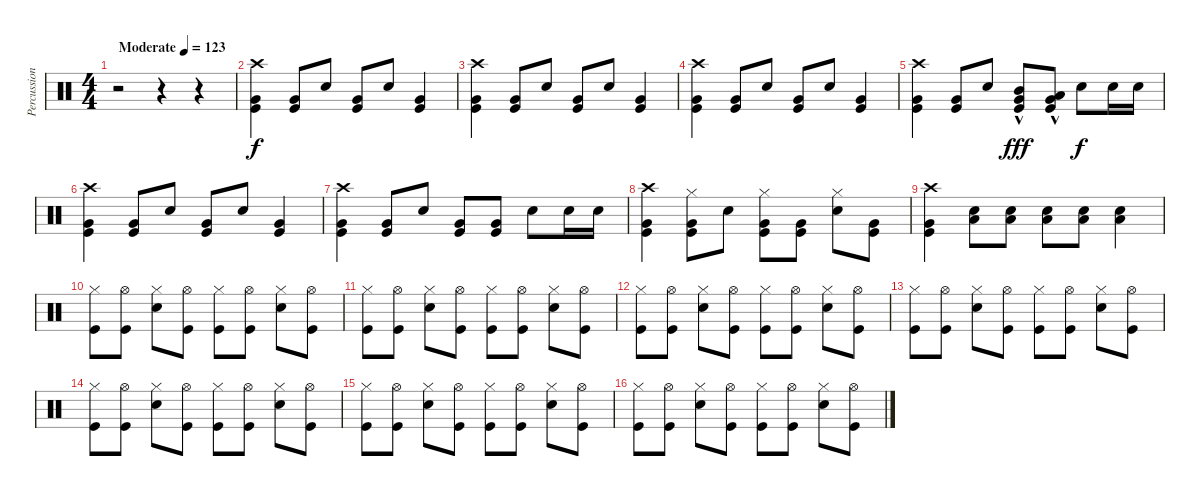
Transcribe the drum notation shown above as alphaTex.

\track ("Percussion" "Percussion") {instrument percussion}
\staff {score}
\articulation defaults
\ts (4 4)
\tempo (123 "Moderate")
\clef neutral
\ks c
r.2{dy f volume 0} r.4{volume 13} r.4 |
("Crash high (hit)" "Very Low Tom (hit)" "Kick (hit)").4 ("Very Low Tom (hit)" "Kick (hit)").8 "Snare (hit) 2".8 ("Very Low Tom (hit)" "Kick (hit)").8 "Snare (hit) 2".8 ("Very Low Tom (hit)" "Kick (hit)").4 |
("Crash high (hit)" "Very Low Tom (hit)" "Kick (hit)").4 ("Very Low Tom (hit)" "Kick (hit)").8 "Snare (hit) 2".8 ("Very Low Tom (hit)" "Kick (hit)").8 "Snare (hit) 2".8 ("Very Low Tom (hit)" "Kick (hit)").4 |
("Crash high (hit)" "Very Low Tom (hit)" "Kick (hit)").4 ("Very Low Tom (hit)" "Kick (hit)").8 "Snare (hit) 2".8 ("Very Low Tom (hit)" "Kick (hit)").8 "Snare (hit) 2".8 ("Very Low Tom (hit)" "Kick (hit)").4 |
("Crash high (hit)" "Very Low Tom (hit)" "Kick (hit)").4 ("Very Low Tom (hit)" "Kick (hit)").8 "Snare (hit) 2".8 ("Mid Tom (hit)" "Very Low Tom (hit)"{hac} "Kick (hit)").8{dy fff} ("Low Tom (hit)" "Very Low Tom (hit)"{hac} "Kick (hit)").8 "Snare (hit) 2".8{dy f} "Snare (hit) 2".16 "Snare (hit) 2".16 |
("Crash high (hit)" "Very Low Tom (hit)" "Kick (hit)").4 ("Very Low Tom (hit)" "Kick (hit)").8 "Snare (hit) 2".8 ("Very Low Tom (hit)" "Kick (hit)").8 "Snare (hit) 2".8 ("Very Low Tom (hit)" "Kick (hit)").4 |
("Crash high (hit)" "Very Low Tom (hit)" "Kick (hit)").4 ("Very Low Tom (hit)" "Kick (hit)").8 "Snare (hit) 2".8 ("Very Low Tom (hit)" "Kick (hit)").8 ("Very Low Tom (hit)" "Kick (hit)").8 "Snare (hit) 2".8 "Snare (hit) 2".16 "Snare (hit) 2".16 |
("Crash high (hit)" "Very Low Tom (hit)" "Kick (hit)").4 ("Hi-Hat (closed)" "Very Low Tom (hit)" "Kick (hit)").8 "Snare (hit) 2".8 ("Hi-Hat (closed)" "Very Low Tom (hit)" "Kick (hit)").8 ("Very Low Tom (hit)" "Kick (hit)").8 ("Hi-Hat (closed)" "Snare (hit) 2").8 ("Very Low Tom (hit)" "Kick (hit)").8 |
("Crash high (hit)" "Very Low Tom (hit)" "Kick (hit)").4 ("Snare (hit) 2" "Low Tom (hit)").8 ("Snare (hit) 2" "Low Tom (hit)").8 ("Snare (hit) 2" "Low Tom (hit)").8 ("Snare (hit) 2" "Low Tom (hit)").8 ("Snare (hit) 2" "Low Tom (hit)").4 |
("Hi-Hat (closed)" "Kick (hit)").8 ("Hi-Hat (open)" "Kick (hit)").8 ("Hi-Hat (closed)" "Snare (hit) 2").8 ("Hi-Hat (open)" "Kick (hit)").8 ("Hi-Hat (closed)" "Kick (hit)").8 ("Hi-Hat (open)" "Kick (hit)").8 ("Hi-Hat (closed)" "Snare (hit) 2").8 ("Hi-Hat (open)" "Kick (hit)").8 |
("Hi-Hat (closed)" "Kick (hit)").8 ("Hi-Hat (open)" "Kick (hit)").8 ("Hi-Hat (closed)" "Snare (hit) 2").8 ("Hi-Hat (open)" "Kick (hit)").8 ("Hi-Hat (closed)" "Kick (hit)").8 ("Hi-Hat (open)" "Kick (hit)").8 ("Hi-Hat (closed)" "Snare (hit) 2").8 ("Hi-Hat (open)" "Kick (hit)").8 |
("Hi-Hat (closed)" "Kick (hit)").8{beam Down} ("Hi-Hat (open)" "Kick (hit)").8{beam Down} ("Hi-Hat (closed)" "Snare (hit) 2").8{beam Down} ("Hi-Hat (open)" "Kick (hit)").8{beam Down} ("Hi-Hat (closed)" "Kick (hit)").8{beam Down} ("Hi-Hat (open)" "Kick (hit)").8{beam Down} ("Hi-Hat (closed)" "Snare (hit) 2").8{beam Down} ("Hi-Hat (open)" "Kick (hit)").8{beam Down} |
("Hi-Hat (closed)" "Kick (hit)").8 ("Hi-Hat (open)" "Kick (hit)").8 ("Hi-Hat (closed)" "Snare (hit) 2").8 ("Hi-Hat (open)" "Kick (hit)").8 ("Hi-Hat (closed)" "Kick (hit)").8 ("Hi-Hat (open)" "Kick (hit)").8 ("Hi-Hat (closed)" "Snare (hit) 2").8 ("Hi-Hat (open)" "Kick (hit)").8 |
("Hi-Hat (closed)" "Kick (hit)").8 ("Hi-Hat (open)" "Kick (hit)").8 ("Hi-Hat (closed)" "Snare (hit) 2").8 ("Hi-Hat (open)" "Kick (hit)").8 ("Hi-Hat (closed)" "Kick (hit)").8 ("Hi-Hat (open)" "Kick (hit)").8 ("Hi-Hat (closed)" "Snare (hit) 2").8 ("Hi-Hat (open)" "Kick (hit)").8 |
("Hi-Hat (closed)" "Kick (hit)").8 ("Hi-Hat (open)" "Kick (hit)").8 ("Hi-Hat (closed)" "Snare (hit) 2").8 ("Hi-Hat (open)" "Kick (hit)").8 ("Hi-Hat (closed)" "Kick (hit)").8 ("Hi-Hat (open)" "Kick (hit)").8 ("Hi-Hat (closed)" "Snare (hit) 2").8 ("Hi-Hat (open)" "Kick (hit)").8 |
("Hi-Hat (closed)" "Kick (hit)").8 ("Hi-Hat (open)" "Kick (hit)").8 ("Hi-Hat (closed)" "Snare (hit) 2").8 ("Hi-Hat (open)" "Kick (hit)").8 ("Hi-Hat (closed)" "Kick (hit)").8 ("Hi-Hat (open)" "Kick (hit)").8 ("Hi-Hat (closed)" "Snare (hit) 2").8 ("Hi-Hat (open)" "Kick (hit)").8
